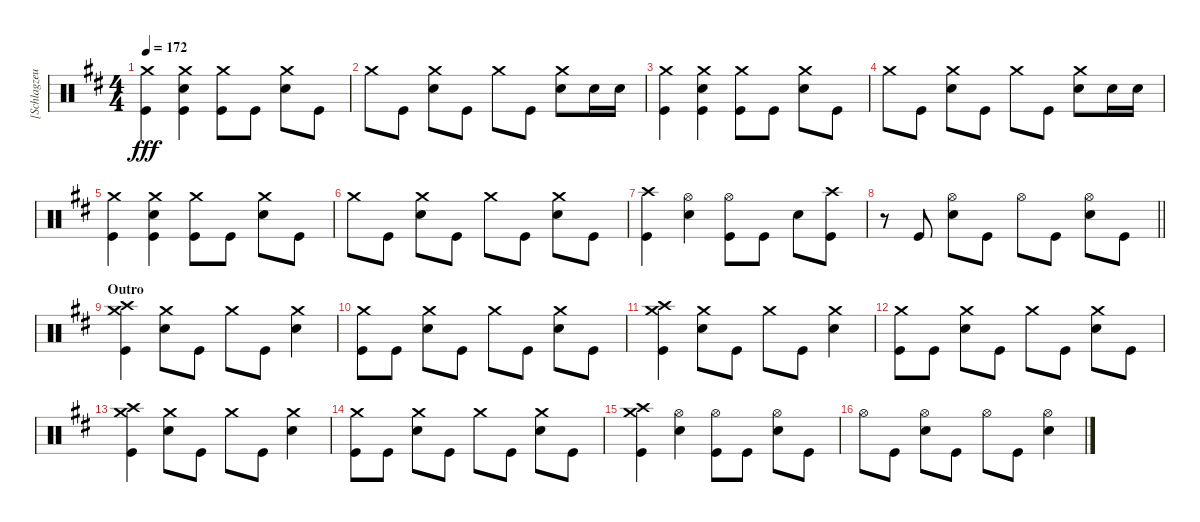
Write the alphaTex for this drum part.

\track ("[Schlagzeug]" "[Schlagzeu") {instrument percussion}
\staff {score}
\articulation defaults
\ts (4 4)
\tempo 172
\clef neutral
\ks d
("Crash medium (hit)" "Kick (hit)").4{dy fff} ("Crash medium (hit)" "Electric Snare (hit)" "Kick (hit)").4 ("Crash medium (hit)" "Kick (hit)").8 "Kick (hit)".8 ("Crash medium (hit)" "Electric Snare (hit)").8 "Kick (hit)".8 |
"Crash medium (hit)".8 "Kick (hit)".8 ("Crash medium (hit)" "Electric Snare (hit)").8 "Kick (hit)".8 "Crash medium (hit)".8 "Kick (hit)".8 ("Crash medium (hit)" "Electric Snare (hit)").8 "Electric Snare (hit)".16 "Electric Snare (hit)".16 |
("Crash medium (hit)" "Kick (hit)").4 ("Crash medium (hit)" "Electric Snare (hit)" "Kick (hit)").4 ("Crash medium (hit)" "Kick (hit)").8 "Kick (hit)".8 ("Crash medium (hit)" "Electric Snare (hit)").8 "Kick (hit)".8 |
"Crash medium (hit)".8 "Kick (hit)".8 ("Crash medium (hit)" "Electric Snare (hit)").8 "Kick (hit)".8 "Crash medium (hit)".8 "Kick (hit)".8 ("Crash medium (hit)" "Electric Snare (hit)").8 "Electric Snare (hit)".16 "Electric Snare (hit)".16 |
("Crash medium (hit)" "Kick (hit)").4 ("Crash medium (hit)" "Electric Snare (hit)" "Kick (hit)").4 ("Crash medium (hit)" "Kick (hit)").8 "Kick (hit)".8 ("Crash medium (hit)" "Electric Snare (hit)").8 "Kick (hit)".8 |
"Crash medium (hit)".8 "Kick (hit)".8 ("Crash medium (hit)" "Electric Snare (hit)").8 "Kick (hit)".8 "Crash medium (hit)".8 "Kick (hit)".8 ("Crash medium (hit)" "Electric Snare (hit)").8 "Kick (hit)".8 |
("Crash high (hit)" "Kick (hit)").4 ("Hi-Hat (open)" "Electric Snare (hit)").4 ("Hi-Hat (open)" "Kick (hit)").8 "Kick (hit)".8 "Electric Snare (hit)".8 ("Crash high (hit)" "Kick (hit)").8 |
\barLineRight lightlight
r.8 "Kick (hit)".8 ("Hi-Hat (open)" "Electric Snare (hit)").8 "Kick (hit)".8 "Hi-Hat (open)".8 "Kick (hit)".8 ("Hi-Hat (open)" "Electric Snare (hit)").8 "Kick (hit)".8 |
\section ("" "Outro")
("Crash medium (hit)" "Crash high (hit)" "Kick (hit)").4 ("Crash medium (hit)" "Electric Snare (hit)").8 "Kick (hit)".8 "Crash medium (hit)".8 "Kick (hit)".8 ("Crash medium (hit)" "Electric Snare (hit)").4 |
("Crash medium (hit)" "Kick (hit)").8 "Kick (hit)".8 ("Crash medium (hit)" "Electric Snare (hit)").8 "Kick (hit)".8 "Crash medium (hit)".8 "Kick (hit)".8 ("Crash medium (hit)" "Electric Snare (hit)").8 "Kick (hit)".8 |
("Crash medium (hit)" "Crash high (hit)" "Kick (hit)").4 ("Crash medium (hit)" "Electric Snare (hit)").8 "Kick (hit)".8 "Crash medium (hit)".8 "Kick (hit)".8 ("Crash medium (hit)" "Electric Snare (hit)").4 |
("Crash medium (hit)" "Kick (hit)").8 "Kick (hit)".8 ("Crash medium (hit)" "Electric Snare (hit)").8 "Kick (hit)".8 "Crash medium (hit)".8 "Kick (hit)".8 ("Crash medium (hit)" "Electric Snare (hit)").8 "Kick (hit)".8 |
("Crash medium (hit)" "Crash high (hit)" "Kick (hit)").4 ("Crash medium (hit)" "Electric Snare (hit)").8 "Kick (hit)".8 "Crash medium (hit)".8 "Kick (hit)".8 ("Crash medium (hit)" "Electric Snare (hit)").4 |
("Crash medium (hit)" "Kick (hit)").8 "Kick (hit)".8 ("Crash medium (hit)" "Electric Snare (hit)").8 "Kick (hit)".8 "Crash medium (hit)".8 "Kick (hit)".8 ("Crash medium (hit)" "Electric Snare (hit)").8 "Kick (hit)".8 |
("Crash medium (hit)" "Crash high (hit)" "Kick (hit)").4 ("Hi-Hat (open)" "Electric Snare (hit)").4 ("Hi-Hat (open)" "Kick (hit)").8 "Kick (hit)".8 ("Hi-Hat (open)" "Electric Snare (hit)").8 "Kick (hit)".8 |
"Hi-Hat (open)".8 "Kick (hit)".8 ("Hi-Hat (open)" "Electric Snare (hit)").8 "Kick (hit)".8 "Hi-Hat (open)".8 "Kick (hit)".8 ("Hi-Hat (open)" "Electric Snare (hit)").4
